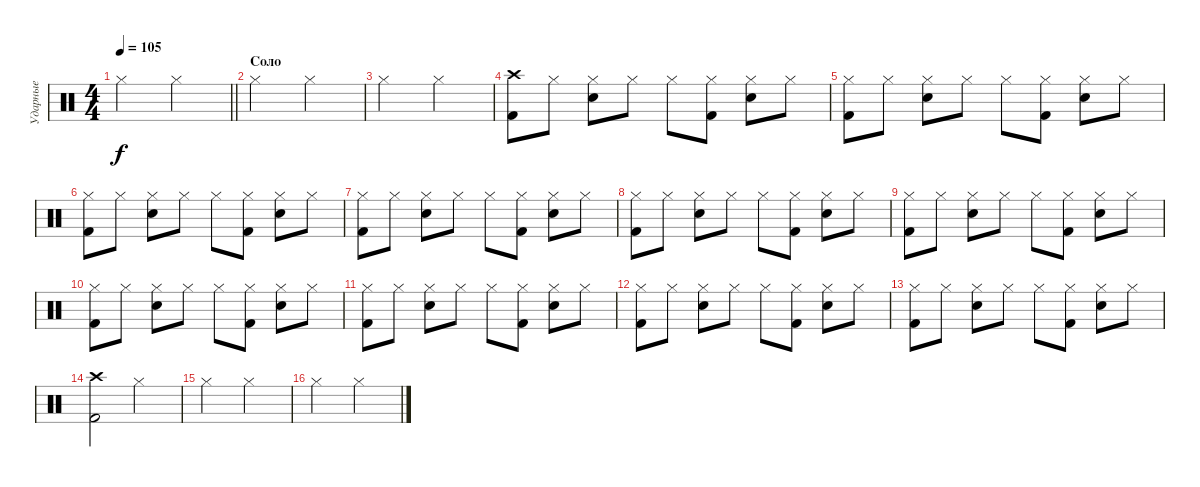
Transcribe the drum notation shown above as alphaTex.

\track ("Ударные" "Ударные") {instrument percussion}
\staff {score}
\articulation defaults
\ts (4 4)
\tempo 105
\clef neutral
\barLineRight lightlight
\ks c "Hi-Hat (closed)".2{dy f} "Hi-Hat (closed)".2
|
\section ("" "Соло")
"Hi-Hat (closed)".2 "Hi-Hat (closed)".2 |
"Hi-Hat (closed)".2 "Hi-Hat (closed)".2 |
("Kick (hit) 2" "Crash high (hit)").8 "Hi-Hat (closed)".8 ("Snare (hit) 2" "Hi-Hat (closed)").8 "Hi-Hat (closed)".8 "Hi-Hat (closed)".8 ("Kick (hit) 2" "Hi-Hat (closed)").8 ("Snare (hit) 2" "Hi-Hat (closed)").8 "Hi-Hat (closed)".8 |
("Kick (hit) 2" "Hi-Hat (closed)").8 "Hi-Hat (closed)".8 ("Snare (hit) 2" "Hi-Hat (closed)").8 "Hi-Hat (closed)".8 "Hi-Hat (closed)".8 ("Kick (hit) 2" "Hi-Hat (closed)").8 ("Snare (hit) 2" "Hi-Hat (closed)").8 "Hi-Hat (closed)".8 |
("Kick (hit) 2" "Hi-Hat (closed)").8 "Hi-Hat (closed)".8 ("Snare (hit) 2" "Hi-Hat (closed)").8 "Hi-Hat (closed)".8 "Hi-Hat (closed)".8 ("Kick (hit) 2" "Hi-Hat (closed)").8 ("Snare (hit) 2" "Hi-Hat (closed)").8 "Hi-Hat (closed)".8 |
("Kick (hit) 2" "Hi-Hat (closed)").8 "Hi-Hat (closed)".8 ("Snare (hit) 2" "Hi-Hat (closed)").8 "Hi-Hat (closed)".8 "Hi-Hat (closed)".8 ("Kick (hit) 2" "Hi-Hat (closed)").8 ("Snare (hit) 2" "Hi-Hat (closed)").8 "Hi-Hat (closed)".8 |
("Kick (hit) 2" "Hi-Hat (closed)").8 "Hi-Hat (closed)".8 ("Snare (hit) 2" "Hi-Hat (closed)").8 "Hi-Hat (closed)".8 "Hi-Hat (closed)".8 ("Kick (hit) 2" "Hi-Hat (closed)").8 ("Snare (hit) 2" "Hi-Hat (closed)").8 "Hi-Hat (closed)".8 |
("Kick (hit) 2" "Hi-Hat (closed)").8 "Hi-Hat (closed)".8 ("Snare (hit) 2" "Hi-Hat (closed)").8 "Hi-Hat (closed)".8 "Hi-Hat (closed)".8 ("Kick (hit) 2" "Hi-Hat (closed)").8 ("Snare (hit) 2" "Hi-Hat (closed)").8 "Hi-Hat (closed)".8 |
("Kick (hit) 2" "Hi-Hat (closed)").8 "Hi-Hat (closed)".8 ("Snare (hit) 2" "Hi-Hat (closed)").8 "Hi-Hat (closed)".8 "Hi-Hat (closed)".8 ("Kick (hit) 2" "Hi-Hat (closed)").8 ("Snare (hit) 2" "Hi-Hat (closed)").8 "Hi-Hat (closed)".8 |
("Kick (hit) 2" "Hi-Hat (closed)").8 "Hi-Hat (closed)".8 ("Snare (hit) 2" "Hi-Hat (closed)").8 "Hi-Hat (closed)".8 "Hi-Hat (closed)".8 ("Kick (hit) 2" "Hi-Hat (closed)").8 ("Snare (hit) 2" "Hi-Hat (closed)").8 "Hi-Hat (closed)".8 |
("Kick (hit) 2" "Hi-Hat (closed)").8 "Hi-Hat (closed)".8 ("Snare (hit) 2" "Hi-Hat (closed)").8 "Hi-Hat (closed)".8 "Hi-Hat (closed)".8 ("Kick (hit) 2" "Hi-Hat (closed)").8 ("Snare (hit) 2" "Hi-Hat (closed)").8 "Hi-Hat (closed)".8 |
("Kick (hit) 2" "Hi-Hat (closed)").8 "Hi-Hat (closed)".8 ("Snare (hit) 2" "Hi-Hat (closed)").8 "Hi-Hat (closed)".8 "Hi-Hat (closed)".8 ("Kick (hit) 2" "Hi-Hat (closed)").8 ("Snare (hit) 2" "Hi-Hat (closed)").8 "Hi-Hat (closed)".8 |
("Kick (hit) 2" "Crash high (hit)").2 "Hi-Hat (closed)".2 |
"Hi-Hat (closed)".2 "Hi-Hat (closed)".2 |
"Hi-Hat (closed)".2 "Hi-Hat (closed)".2
